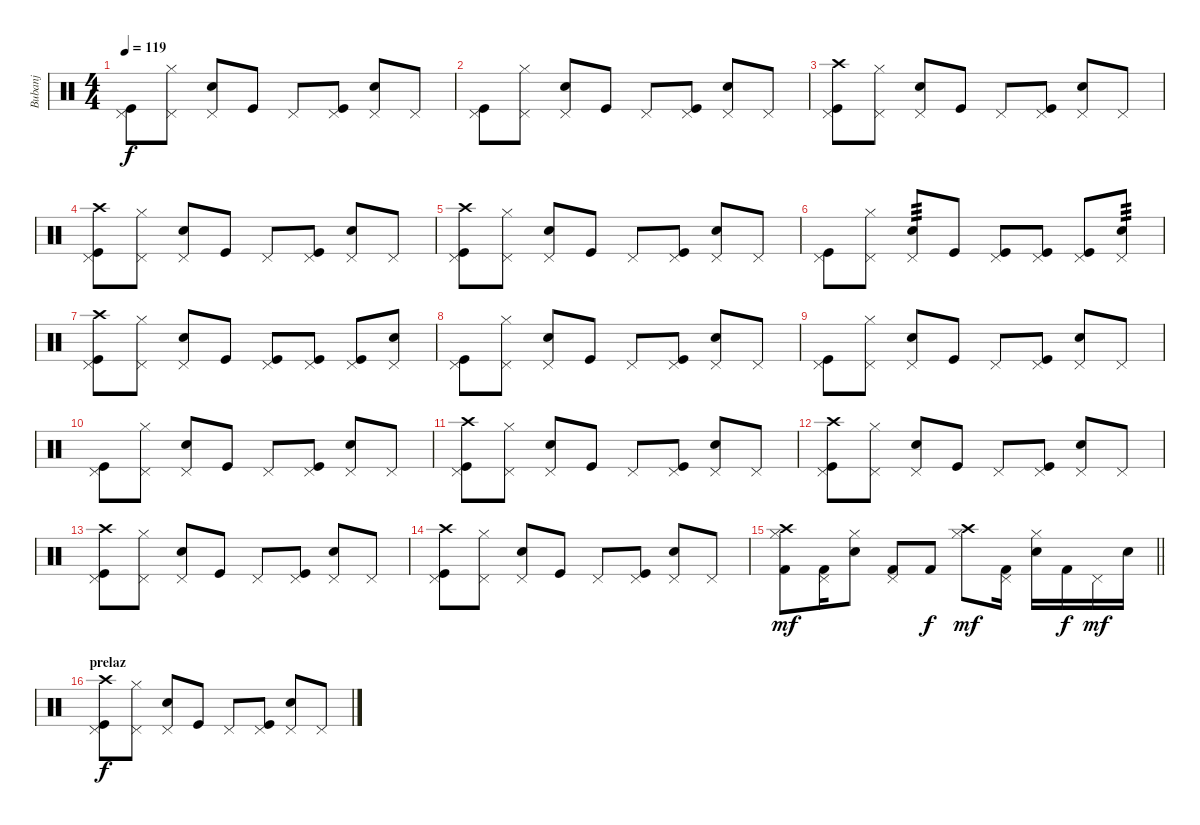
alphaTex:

\track ("Bubanj" "Bubanj") {instrument percussion}
\staff {score}
\articulation defaults
\ts (4 4)
\tempo 119
\clef neutral
\ks c
("Pedal Hi-Hat (hit)" "Kick (hit)").8{dy f} ("Pedal Hi-Hat (hit)" "Hi-Hat (closed)").8 ("Pedal Hi-Hat (hit)" "Electric Snare (hit)").8 "Kick (hit)".8 "Pedal Hi-Hat (hit)".8 ("Pedal Hi-Hat (hit)" "Kick (hit)").8 ("Pedal Hi-Hat (hit)" "Electric Snare (hit)").8 "Pedal Hi-Hat (hit)".8 |
("Pedal Hi-Hat (hit)" "Kick (hit)").8 ("Pedal Hi-Hat (hit)" "Hi-Hat (closed)").8 ("Pedal Hi-Hat (hit)" "Electric Snare (hit)").8 "Kick (hit)".8 "Pedal Hi-Hat (hit)".8 ("Pedal Hi-Hat (hit)" "Kick (hit)").8 ("Pedal Hi-Hat (hit)" "Electric Snare (hit)").8 "Pedal Hi-Hat (hit)".8 |
("Pedal Hi-Hat (hit)" "Crash high (hit)" "Kick (hit)").8 ("Pedal Hi-Hat (hit)" "Hi-Hat (closed)").8 ("Pedal Hi-Hat (hit)" "Electric Snare (hit)").8 "Kick (hit)".8 "Pedal Hi-Hat (hit)".8 ("Pedal Hi-Hat (hit)" "Kick (hit)").8 ("Pedal Hi-Hat (hit)" "Electric Snare (hit)").8 "Pedal Hi-Hat (hit)".8 |
("Pedal Hi-Hat (hit)" "Crash high (hit)" "Kick (hit)").8 ("Pedal Hi-Hat (hit)" "Hi-Hat (closed)").8 ("Pedal Hi-Hat (hit)" "Electric Snare (hit)").8 "Kick (hit)".8 "Pedal Hi-Hat (hit)".8 ("Pedal Hi-Hat (hit)" "Kick (hit)").8 ("Pedal Hi-Hat (hit)" "Electric Snare (hit)").8 "Pedal Hi-Hat (hit)".8 |
("Pedal Hi-Hat (hit)" "Crash high (hit)" "Kick (hit)").8 ("Pedal Hi-Hat (hit)" "Hi-Hat (closed)").8 ("Pedal Hi-Hat (hit)" "Electric Snare (hit)").8 "Kick (hit)".8 "Pedal Hi-Hat (hit)".8 ("Pedal Hi-Hat (hit)" "Kick (hit)").8 ("Pedal Hi-Hat (hit)" "Electric Snare (hit)").8 "Pedal Hi-Hat (hit)".8 |
("Pedal Hi-Hat (hit)" "Kick (hit)").8 ("Pedal Hi-Hat (hit)" "Hi-Hat (closed)").8 ("Pedal Hi-Hat (hit)" "Electric Snare (hit)").8{tp 3} "Kick (hit)".8 ("Pedal Hi-Hat (hit)" "Kick (hit)").8 ("Pedal Hi-Hat (hit)" "Kick (hit)").8 ("Pedal Hi-Hat (hit)" "Kick (hit)").8 ("Pedal Hi-Hat (hit)" "Electric Snare (hit)").8{tp 3} |
("Pedal Hi-Hat (hit)" "Crash high (hit)" "Kick (hit)").8 ("Pedal Hi-Hat (hit)" "Hi-Hat (closed)").8 ("Pedal Hi-Hat (hit)" "Electric Snare (hit)").8 "Kick (hit)".8 ("Pedal Hi-Hat (hit)" "Kick (hit)").8 ("Pedal Hi-Hat (hit)" "Kick (hit)").8 ("Pedal Hi-Hat (hit)" "Kick (hit)").8 ("Pedal Hi-Hat (hit)" "Electric Snare (hit)").8 |
("Pedal Hi-Hat (hit)" "Kick (hit)").8 ("Pedal Hi-Hat (hit)" "Hi-Hat (closed)").8 ("Pedal Hi-Hat (hit)" "Electric Snare (hit)").8 "Kick (hit)".8 "Pedal Hi-Hat (hit)".8 ("Pedal Hi-Hat (hit)" "Kick (hit)").8 ("Pedal Hi-Hat (hit)" "Electric Snare (hit)").8 "Pedal Hi-Hat (hit)".8 |
("Pedal Hi-Hat (hit)" "Kick (hit)").8 ("Pedal Hi-Hat (hit)" "Hi-Hat (closed)").8 ("Pedal Hi-Hat (hit)" "Electric Snare (hit)").8 "Kick (hit)".8 "Pedal Hi-Hat (hit)".8 ("Pedal Hi-Hat (hit)" "Kick (hit)").8 ("Pedal Hi-Hat (hit)" "Electric Snare (hit)").8 "Pedal Hi-Hat (hit)".8 |
("Pedal Hi-Hat (hit)" "Kick (hit)").8 ("Pedal Hi-Hat (hit)" "Hi-Hat (closed)").8 ("Pedal Hi-Hat (hit)" "Electric Snare (hit)").8 "Kick (hit)".8 "Pedal Hi-Hat (hit)".8 ("Pedal Hi-Hat (hit)" "Kick (hit)").8 ("Pedal Hi-Hat (hit)" "Electric Snare (hit)").8 "Pedal Hi-Hat (hit)".8 |
("Pedal Hi-Hat (hit)" "Crash high (hit)" "Kick (hit)").8 ("Pedal Hi-Hat (hit)" "Hi-Hat (closed)").8 ("Pedal Hi-Hat (hit)" "Electric Snare (hit)").8 "Kick (hit)".8 "Pedal Hi-Hat (hit)".8 ("Pedal Hi-Hat (hit)" "Kick (hit)").8 ("Pedal Hi-Hat (hit)" "Electric Snare (hit)").8 "Pedal Hi-Hat (hit)".8 |
("Pedal Hi-Hat (hit)" "Crash high (hit)" "Kick (hit)").8 ("Pedal Hi-Hat (hit)" "Hi-Hat (closed)").8 ("Pedal Hi-Hat (hit)" "Electric Snare (hit)").8 "Kick (hit)".8 "Pedal Hi-Hat (hit)".8 ("Pedal Hi-Hat (hit)" "Kick (hit)").8 ("Pedal Hi-Hat (hit)" "Electric Snare (hit)").8 "Pedal Hi-Hat (hit)".8 |
("Pedal Hi-Hat (hit)" "Crash high (hit)" "Kick (hit)").8 ("Pedal Hi-Hat (hit)" "Hi-Hat (closed)").8 ("Pedal Hi-Hat (hit)" "Electric Snare (hit)").8 "Kick (hit)".8 "Pedal Hi-Hat (hit)".8 ("Pedal Hi-Hat (hit)" "Kick (hit)").8 ("Pedal Hi-Hat (hit)" "Electric Snare (hit)").8 "Pedal Hi-Hat (hit)".8 |
("Pedal Hi-Hat (hit)" "Crash high (hit)" "Kick (hit)").8 ("Pedal Hi-Hat (hit)" "Hi-Hat (closed)").8 ("Pedal Hi-Hat (hit)" "Electric Snare (hit)").8 "Kick (hit)".8 "Pedal Hi-Hat (hit)".8 ("Pedal Hi-Hat (hit)" "Kick (hit)").8 ("Pedal Hi-Hat (hit)" "Electric Snare (hit)").8 "Pedal Hi-Hat (hit)".8 |
\barLineRight lightlight
("Hi-Hat (closed)" "Kick (hit) 2" "Crash high (hit)").8{dy mf} ("Kick (hit) 2" "Pedal Hi-Hat (hit)").16 ("Hi-Hat (closed)" "Electric Snare (hit)").8 ("Pedal Hi-Hat (hit)" "Kick (hit) 2").8 "Kick (hit) 2".8{dy f} ("Hi-Hat (closed)" "Crash high (hit)").8{dy mf} ("Pedal Hi-Hat (hit)" "Kick (hit) 2").16 ("Hi-Hat (closed)" "Electric Snare (hit)").16 "Kick (hit) 2".16{dy f} "Pedal Hi-Hat (hit)".16{dy mf} "Electric Snare (hit)".16 |
\section ("" "prelaz")
("Pedal Hi-Hat (hit)" "Crash high (hit)" "Kick (hit)").8{dy f} ("Pedal Hi-Hat (hit)" "Hi-Hat (closed)").8 ("Pedal Hi-Hat (hit)" "Electric Snare (hit)").8 "Kick (hit)".8 "Pedal Hi-Hat (hit)".8 ("Pedal Hi-Hat (hit)" "Kick (hit)").8 ("Pedal Hi-Hat (hit)" "Electric Snare (hit)").8 "Pedal Hi-Hat (hit)".8
